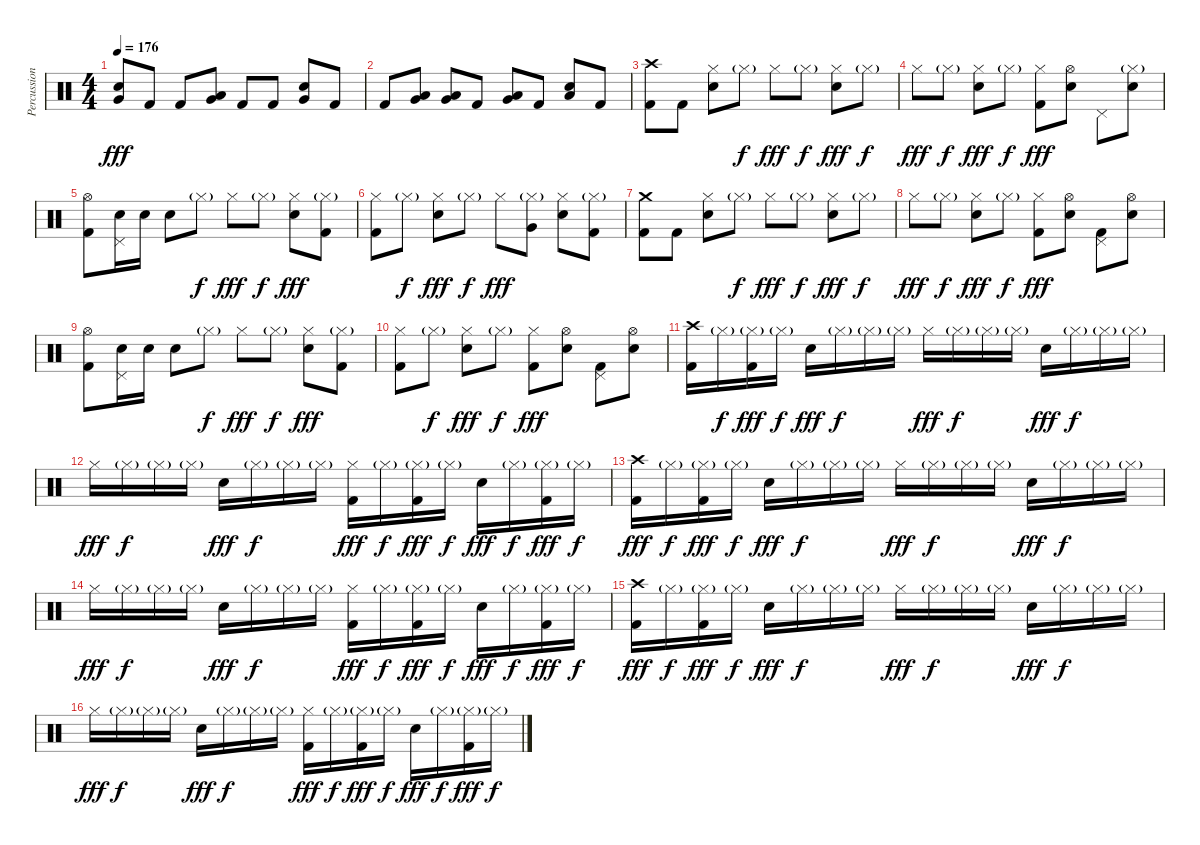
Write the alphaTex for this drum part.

\track ("Percussion" "Percussion") {instrument percussion}
\staff {score}
\articulation defaults
\ts (4 4)
\tempo 176
\clef neutral
\ks c
("Snare (hit) 2" "Very Low Tom (hit)").8{dy fff} "Kick (hit) 2".8 "Kick (hit) 2".8 ("Very Low Tom (hit)" "Low Floor Tom (hit)").8 "Kick (hit) 2".8 "Kick (hit) 2".8 ("Snare (hit) 2" "Very Low Tom (hit)").8 "Kick (hit) 2".8 |
"Kick (hit) 2".8 ("Very Low Tom (hit)" "Low Floor Tom (hit)").8 ("Very Low Tom (hit)" "Low Floor Tom (hit)").8 "Kick (hit) 2".8 ("Very Low Tom (hit)" "Low Floor Tom (hit)").8 "Kick (hit) 2".8 ("Snare (hit) 2" "Low Floor Tom (hit)").8 "Kick (hit) 2".8 |
("Crash high (hit)" "Kick (hit) 2").8 "Kick (hit) 2".8 ("Hi-Hat (closed)" "Snare (hit) 2").8 "Hi-Hat (closed)"{g}.8{dy f} "Hi-Hat (closed)".8{dy fff} "Hi-Hat (closed)"{g}.8{dy f} ("Hi-Hat (closed)" "Snare (hit) 2").8{dy fff} "Hi-Hat (closed)"{g}.8{dy f} |
"Hi-Hat (closed)".8{dy fff} "Hi-Hat (closed)"{g}.8{dy f} ("Hi-Hat (closed)" "Snare (hit) 2").8{dy fff} "Hi-Hat (closed)"{g}.8{dy f} ("Hi-Hat (closed)" "Kick (hit) 2").8{dy fff} ("Hi-Hat (open)" "Snare (hit) 2").8 "Pedal Hi-Hat (hit)".8 ("Hi-Hat (closed)"{g} "Snare (hit) 2").8 |
("Hi-Hat (open)" "Kick (hit) 2").8 ("Pedal Hi-Hat (hit)" "Snare (hit) 2").16 "Snare (hit) 2".16 "Snare (hit) 2".8 "Hi-Hat (closed)"{g}.8{dy f} "Hi-Hat (closed)".8{dy fff} "Hi-Hat (closed)"{g}.8{dy f} ("Hi-Hat (closed)" "Snare (hit) 2").8{dy fff} ("Hi-Hat (closed)"{g} "Kick (hit) 2").8 |
("Hi-Hat (closed)" "Kick (hit) 2").8 "Hi-Hat (closed)"{g}.8{dy f} ("Hi-Hat (closed)" "Snare (hit) 2").8{dy fff} "Hi-Hat (closed)"{g}.8{dy f} "Hi-Hat (closed)".8{dy fff} ("Hi-Hat (closed)"{g} "Very Low Tom (hit)").8 ("Hi-Hat (closed)" "Snare (hit) 2").8 ("Hi-Hat (closed)"{g} "Kick (hit) 2").8 |
("Crash medium (hit)" "Kick (hit) 2").8 "Kick (hit) 2".8 ("Hi-Hat (closed)" "Snare (hit) 2").8 "Hi-Hat (closed)"{g}.8{dy f} "Hi-Hat (closed)".8{dy fff} "Hi-Hat (closed)"{g}.8{dy f} ("Hi-Hat (closed)" "Snare (hit) 2").8{dy fff} "Hi-Hat (closed)"{g}.8{dy f} |
"Hi-Hat (closed)".8{dy fff} "Hi-Hat (closed)"{g}.8{dy f} ("Hi-Hat (closed)" "Snare (hit) 2").8{dy fff} "Hi-Hat (closed)"{g}.8{dy f} ("Hi-Hat (closed)" "Kick (hit) 2").8{dy fff} ("Hi-Hat (open)" "Snare (hit) 2").8 ("Pedal Hi-Hat (hit)" "Kick (hit) 2").8 ("Hi-Hat (open)" "Snare (hit) 2").8 |
("Hi-Hat (open)" "Kick (hit) 2").8 ("Pedal Hi-Hat (hit)" "Snare (hit) 2").16 "Snare (hit) 2".16 "Snare (hit) 2".8 "Hi-Hat (closed)"{g}.8{dy f} "Hi-Hat (closed)".8{dy fff} "Hi-Hat (closed)"{g}.8{dy f} ("Hi-Hat (closed)" "Snare (hit) 2").8{dy fff} ("Hi-Hat (closed)"{g} "Kick (hit) 2").8 |
("Hi-Hat (closed)" "Kick (hit) 2").8 "Hi-Hat (closed)"{g}.8{dy f} ("Hi-Hat (closed)" "Snare (hit) 2").8{dy fff} "Hi-Hat (closed)"{g}.8{dy f} ("Hi-Hat (closed)" "Kick (hit) 2").8{dy fff} ("Hi-Hat (open)" "Snare (hit) 2").8 ("Pedal Hi-Hat (hit)" "Kick (hit) 2").8 ("Hi-Hat (open)" "Snare (hit) 2").8 |
("Crash high (hit)" "Kick (hit) 2").16 "Hi-Hat (closed)"{g}.16{dy f} ("Hi-Hat (closed)"{g} "Kick (hit) 2").16{dy fff} "Hi-Hat (closed)"{g}.16{dy f} "Snare (hit) 2".16{dy fff} "Hi-Hat (closed)"{g}.16{dy f} "Hi-Hat (closed)"{g}.16 "Hi-Hat (closed)"{g}.16 "Hi-Hat (closed)".16{dy fff} "Hi-Hat (closed)"{g}.16{dy f} "Hi-Hat (closed)"{g}.16 "Hi-Hat (closed)"{g}.16 "Snare (hit) 2".16{dy fff} "Hi-Hat (closed)"{g}.16{dy f} "Hi-Hat (closed)"{g}.16 "Hi-Hat (closed)"{g}.16 |
"Hi-Hat (closed)".16{dy fff} "Hi-Hat (closed)"{g}.16{dy f} "Hi-Hat (closed)"{g}.16 "Hi-Hat (closed)"{g}.16 "Snare (hit) 2".16{dy fff} "Hi-Hat (closed)"{g}.16{dy f} "Hi-Hat (closed)"{g}.16 "Hi-Hat (closed)"{g}.16 ("Hi-Hat (closed)" "Kick (hit) 2").16{dy fff} "Hi-Hat (closed)"{g}.16{dy f} ("Hi-Hat (closed)"{g} "Kick (hit) 2").16{dy fff} "Hi-Hat (closed)"{g}.16{dy f} "Snare (hit) 2".16{dy fff} "Hi-Hat (closed)"{g}.16{dy f} ("Hi-Hat (closed)"{g} "Kick (hit) 2").16{dy fff} "Hi-Hat (closed)"{g}.16{dy f} |
("Crash high (hit)" "Kick (hit) 2").16{dy fff} "Hi-Hat (closed)"{g}.16{dy f} ("Hi-Hat (closed)"{g} "Kick (hit) 2").16{dy fff} "Hi-Hat (closed)"{g}.16{dy f} "Snare (hit) 2".16{dy fff} "Hi-Hat (closed)"{g}.16{dy f} "Hi-Hat (closed)"{g}.16 "Hi-Hat (closed)"{g}.16 "Hi-Hat (closed)".16{dy fff} "Hi-Hat (closed)"{g}.16{dy f} "Hi-Hat (closed)"{g}.16 "Hi-Hat (closed)"{g}.16 "Snare (hit) 2".16{dy fff} "Hi-Hat (closed)"{g}.16{dy f} "Hi-Hat (closed)"{g}.16 "Hi-Hat (closed)"{g}.16 |
"Hi-Hat (closed)".16{dy fff} "Hi-Hat (closed)"{g}.16{dy f} "Hi-Hat (closed)"{g}.16 "Hi-Hat (closed)"{g}.16 "Snare (hit) 2".16{dy fff} "Hi-Hat (closed)"{g}.16{dy f} "Hi-Hat (closed)"{g}.16 "Hi-Hat (closed)"{g}.16 ("Hi-Hat (closed)" "Kick (hit) 2").16{dy fff} "Hi-Hat (closed)"{g}.16{dy f} ("Hi-Hat (closed)"{g} "Kick (hit) 2").16{dy fff} "Hi-Hat (closed)"{g}.16{dy f} "Snare (hit) 2".16{dy fff} "Hi-Hat (closed)"{g}.16{dy f} ("Hi-Hat (closed)"{g} "Kick (hit) 2").16{dy fff} "Hi-Hat (closed)"{g}.16{dy f} |
("Crash high (hit)" "Kick (hit) 2").16{dy fff} "Hi-Hat (closed)"{g}.16{dy f} ("Hi-Hat (closed)"{g} "Kick (hit) 2").16{dy fff} "Hi-Hat (closed)"{g}.16{dy f} "Snare (hit) 2".16{dy fff} "Hi-Hat (closed)"{g}.16{dy f} "Hi-Hat (closed)"{g}.16 "Hi-Hat (closed)"{g}.16 "Hi-Hat (closed)".16{dy fff} "Hi-Hat (closed)"{g}.16{dy f} "Hi-Hat (closed)"{g}.16 "Hi-Hat (closed)"{g}.16 "Snare (hit) 2".16{dy fff} "Hi-Hat (closed)"{g}.16{dy f} "Hi-Hat (closed)"{g}.16 "Hi-Hat (closed)"{g}.16 |
"Hi-Hat (closed)".16{dy fff} "Hi-Hat (closed)"{g}.16{dy f} "Hi-Hat (closed)"{g}.16 "Hi-Hat (closed)"{g}.16 "Snare (hit) 2".16{dy fff} "Hi-Hat (closed)"{g}.16{dy f} "Hi-Hat (closed)"{g}.16 "Hi-Hat (closed)"{g}.16 ("Hi-Hat (closed)" "Kick (hit) 2").16{dy fff} "Hi-Hat (closed)"{g}.16{dy f} ("Hi-Hat (closed)"{g} "Kick (hit) 2").16{dy fff} "Hi-Hat (closed)"{g}.16{dy f} "Snare (hit) 2".16{dy fff} "Hi-Hat (closed)"{g}.16{dy f} ("Hi-Hat (closed)"{g} "Kick (hit) 2").16{dy fff} "Hi-Hat (closed)"{g}.16{dy f}
